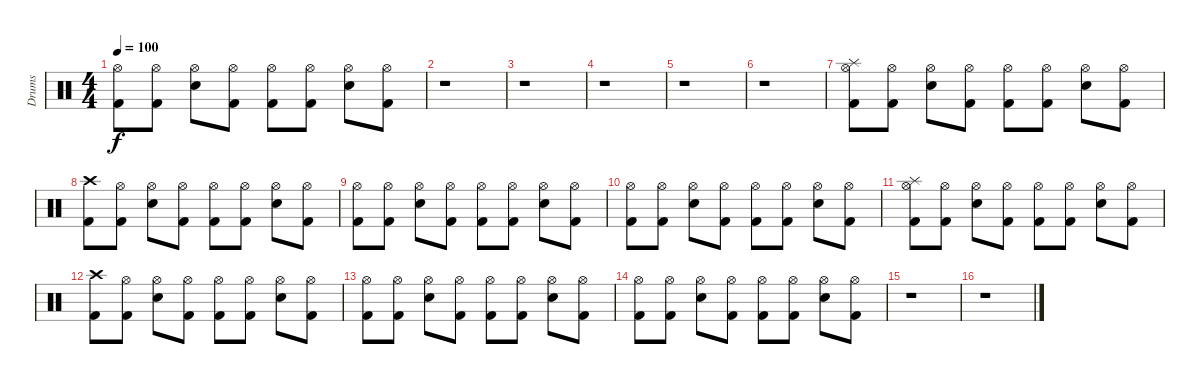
\track ("Drums" "Drums") {instrument percussion}
\staff {score}
\articulation defaults
\ts (4 4)
\tempo 100
\clef neutral
\ks c
("Kick (hit) 2" "Hi-Hat (open)").8{dy f} ("Kick (hit) 2" "Hi-Hat (open)").8 ("Electric Snare (hit)" "Hi-Hat (open)").8 ("Kick (hit) 2" "Hi-Hat (open)").8 ("Kick (hit) 2" "Hi-Hat (open)").8 ("Kick (hit) 2" "Hi-Hat (open)").8 ("Electric Snare (hit)" "Hi-Hat (open)").8 ("Kick (hit) 2" "Hi-Hat (open)").8 |
r.1 |
r.1 |
r.1 |
r.1 |
r.1 |
("Kick (hit) 2" "Splash (hit)" "Hi-Hat (open)").8 ("Kick (hit) 2" "Hi-Hat (open)").8 ("Electric Snare (hit)" "Hi-Hat (open)").8 ("Kick (hit) 2" "Hi-Hat (open)").8 ("Kick (hit) 2" "Hi-Hat (open)").8 ("Kick (hit) 2" "Hi-Hat (open)").8 ("Electric Snare (hit)" "Hi-Hat (open)").8 ("Kick (hit) 2" "Hi-Hat (open)").8 |
("Kick (hit) 2" "Crash high (hit)").8 ("Kick (hit) 2" "Hi-Hat (open)").8 ("Electric Snare (hit)" "Hi-Hat (open)").8 ("Kick (hit) 2" "Hi-Hat (open)").8 ("Kick (hit) 2" "Hi-Hat (open)").8 ("Kick (hit) 2" "Hi-Hat (open)").8 ("Electric Snare (hit)" "Hi-Hat (open)").8 ("Kick (hit) 2" "Hi-Hat (open)").8 |
("Kick (hit) 2" "Hi-Hat (open)").8 ("Kick (hit) 2" "Hi-Hat (open)").8 ("Electric Snare (hit)" "Hi-Hat (open)").8 ("Kick (hit) 2" "Hi-Hat (open)").8 ("Kick (hit) 2" "Hi-Hat (open)").8 ("Kick (hit) 2" "Hi-Hat (open)").8 ("Electric Snare (hit)" "Hi-Hat (open)").8 ("Kick (hit) 2" "Hi-Hat (open)").8 |
("Kick (hit) 2" "Hi-Hat (open)").8 ("Kick (hit) 2" "Hi-Hat (open)").8 ("Electric Snare (hit)" "Hi-Hat (open)").8 ("Kick (hit) 2" "Hi-Hat (open)").8 ("Kick (hit) 2" "Hi-Hat (open)").8 ("Kick (hit) 2" "Hi-Hat (open)").8 ("Electric Snare (hit)" "Hi-Hat (open)").8 ("Kick (hit) 2" "Hi-Hat (open)").8 |
("Kick (hit) 2" "Splash (hit)" "Hi-Hat (open)").8 ("Kick (hit) 2" "Hi-Hat (open)").8 ("Electric Snare (hit)" "Hi-Hat (open)").8 ("Kick (hit) 2" "Hi-Hat (open)").8 ("Kick (hit) 2" "Hi-Hat (open)").8 ("Kick (hit) 2" "Hi-Hat (open)").8 ("Electric Snare (hit)" "Hi-Hat (open)").8 ("Kick (hit) 2" "Hi-Hat (open)").8 |
("Kick (hit) 2" "Crash high (hit)").8 ("Kick (hit) 2" "Hi-Hat (open)").8 ("Electric Snare (hit)" "Hi-Hat (open)").8 ("Kick (hit) 2" "Hi-Hat (open)").8 ("Kick (hit) 2" "Hi-Hat (open)").8 ("Kick (hit) 2" "Hi-Hat (open)").8 ("Electric Snare (hit)" "Hi-Hat (open)").8 ("Kick (hit) 2" "Hi-Hat (open)").8 |
("Kick (hit) 2" "Hi-Hat (open)").8 ("Kick (hit) 2" "Hi-Hat (open)").8 ("Electric Snare (hit)" "Hi-Hat (open)").8 ("Kick (hit) 2" "Hi-Hat (open)").8 ("Kick (hit) 2" "Hi-Hat (open)").8 ("Kick (hit) 2" "Hi-Hat (open)").8 ("Electric Snare (hit)" "Hi-Hat (open)").8 ("Kick (hit) 2" "Hi-Hat (open)").8 |
("Kick (hit) 2" "Hi-Hat (open)").8 ("Kick (hit) 2" "Hi-Hat (open)").8 ("Electric Snare (hit)" "Hi-Hat (open)").8 ("Kick (hit) 2" "Hi-Hat (open)").8 ("Kick (hit) 2" "Hi-Hat (open)").8 ("Kick (hit) 2" "Hi-Hat (open)").8 ("Electric Snare (hit)" "Hi-Hat (open)").8 ("Kick (hit) 2" "Hi-Hat (open)").8 |
r.1 |
r.1
